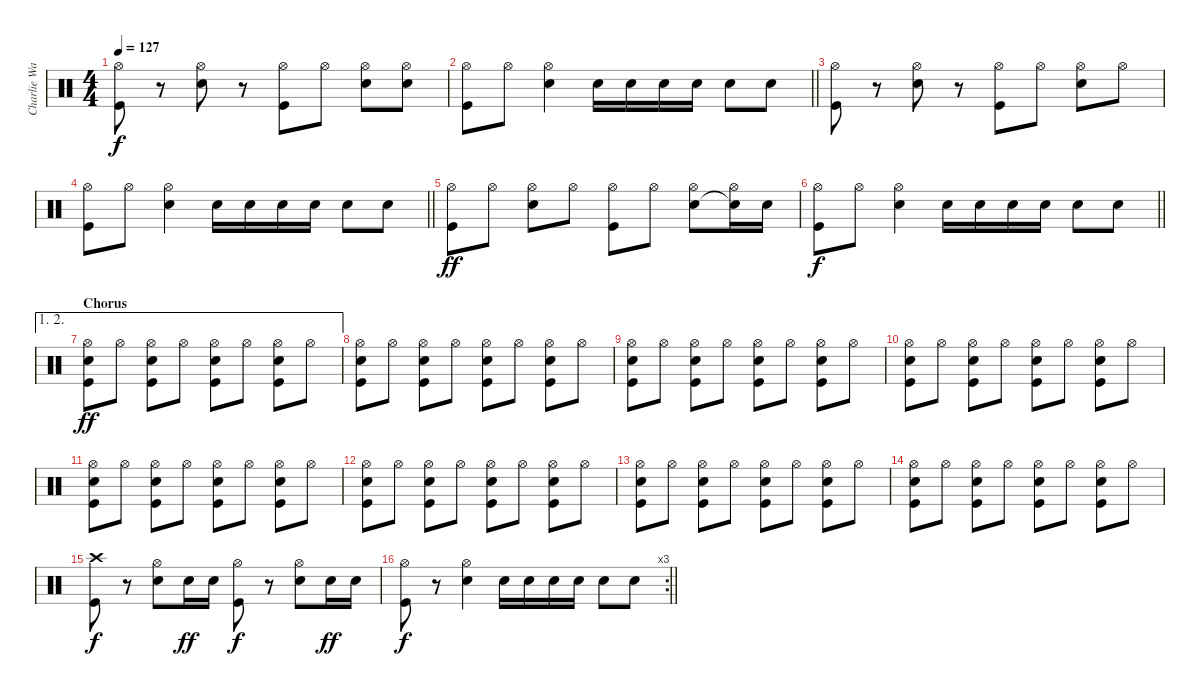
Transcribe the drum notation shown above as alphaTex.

\track ("Charlie Watts" "Charlie Wa") {instrument percussion}
\staff {score}
\articulation defaults
\ts (4 4)
\tempo 127
\clef neutral
\ks c
("Hi-Hat (open)" "Kick (hit)").8{dy f} r.8 ("Hi-Hat (open)" "Snare (hit) 2").8 r.8 ("Hi-Hat (open)" "Kick (hit)").8 "Hi-Hat (open)".8 ("Hi-Hat (open)" "Snare (hit) 2").8 ("Hi-Hat (open)" "Snare (hit) 2").8 |
\barLineRight lightlight
("Hi-Hat (open)" "Kick (hit)").8 "Hi-Hat (open)".8 ("Hi-Hat (open)" "Snare (hit) 2").4 "Snare (hit) 2".16 "Snare (hit) 2".16 "Snare (hit) 2".16 "Snare (hit) 2".16 "Snare (hit) 2".8 "Snare (hit) 2".8 |
("Hi-Hat (open)" "Kick (hit)").8 r.8 ("Hi-Hat (open)" "Snare (hit) 2").8 r.8 ("Hi-Hat (open)" "Kick (hit)").8 "Hi-Hat (open)".8 ("Hi-Hat (open)" "Snare (hit) 2").8 "Hi-Hat (open)".8 |
\barLineRight lightlight
("Hi-Hat (open)" "Kick (hit)").8 "Hi-Hat (open)".8 ("Hi-Hat (open)" "Snare (hit) 2").4 "Snare (hit) 2".16 "Snare (hit) 2".16 "Snare (hit) 2".16 "Snare (hit) 2".16 "Snare (hit) 2".8 "Snare (hit) 2".8 |
("Hi-Hat (open)" "Kick (hit)").8{dy ff} "Hi-Hat (open)".8 ("Hi-Hat (open)" "Snare (hit) 2").8 "Hi-Hat (open)".8 ("Hi-Hat (open)" "Kick (hit)").8 "Hi-Hat (open)".8 ("Hi-Hat (open)" "Snare (hit) 2").8 ("Hi-Hat (open)" "Snare (hit) 2"{t}).16 "Snare (hit) 2".16 |
\barLineRight lightlight
("Hi-Hat (open)" "Kick (hit)").8{dy f} "Hi-Hat (open)".8 ("Hi-Hat (open)" "Snare (hit) 2").4 "Snare (hit) 2".16 "Snare (hit) 2".16 "Snare (hit) 2".16 "Snare (hit) 2".16 "Snare (hit) 2".8 "Snare (hit) 2".8 |
\ae (1 2)
\section ("" "Chorus")
("Hi-Hat (open)" "Snare (hit) 2" "Kick (hit)").8{dy ff} "Hi-Hat (open)".8 ("Hi-Hat (open)" "Kick (hit)" "Snare (hit) 2").8 "Hi-Hat (open)".8 ("Hi-Hat (open)" "Snare (hit) 2" "Kick (hit)").8 "Hi-Hat (open)".8 ("Hi-Hat (open)" "Kick (hit)" "Snare (hit) 2").8 "Hi-Hat (open)".8 |
("Hi-Hat (open)" "Snare (hit) 2" "Kick (hit)").8 "Hi-Hat (open)".8 ("Hi-Hat (open)" "Kick (hit)" "Snare (hit) 2").8 "Hi-Hat (open)".8 ("Hi-Hat (open)" "Snare (hit) 2" "Kick (hit)").8 "Hi-Hat (open)".8 ("Hi-Hat (open)" "Kick (hit)" "Snare (hit) 2").8 "Hi-Hat (open)".8 |
("Hi-Hat (open)" "Snare (hit) 2" "Kick (hit)").8 "Hi-Hat (open)".8 ("Hi-Hat (open)" "Kick (hit)" "Snare (hit) 2").8 "Hi-Hat (open)".8 ("Hi-Hat (open)" "Snare (hit) 2" "Kick (hit)").8 "Hi-Hat (open)".8 ("Hi-Hat (open)" "Kick (hit)" "Snare (hit) 2").8 "Hi-Hat (open)".8 |
("Hi-Hat (open)" "Snare (hit) 2" "Kick (hit)").8 "Hi-Hat (open)".8 ("Hi-Hat (open)" "Kick (hit)" "Snare (hit) 2").8 "Hi-Hat (open)".8 ("Hi-Hat (open)" "Snare (hit) 2" "Kick (hit)").8 "Hi-Hat (open)".8 ("Hi-Hat (open)" "Kick (hit)" "Snare (hit) 2").8 "Hi-Hat (open)".8 |
("Hi-Hat (open)" "Snare (hit) 2" "Kick (hit)").8 "Hi-Hat (open)".8 ("Hi-Hat (open)" "Kick (hit)" "Snare (hit) 2").8 "Hi-Hat (open)".8 ("Hi-Hat (open)" "Snare (hit) 2" "Kick (hit)").8 "Hi-Hat (open)".8 ("Hi-Hat (open)" "Kick (hit)" "Snare (hit) 2").8 "Hi-Hat (open)".8 |
("Hi-Hat (open)" "Snare (hit) 2" "Kick (hit)").8 "Hi-Hat (open)".8 ("Hi-Hat (open)" "Kick (hit)" "Snare (hit) 2").8 "Hi-Hat (open)".8 ("Hi-Hat (open)" "Snare (hit) 2" "Kick (hit)").8 "Hi-Hat (open)".8 ("Hi-Hat (open)" "Kick (hit)" "Snare (hit) 2").8 "Hi-Hat (open)".8 |
("Hi-Hat (open)" "Snare (hit) 2" "Kick (hit)").8 "Hi-Hat (open)".8 ("Hi-Hat (open)" "Kick (hit)" "Snare (hit) 2").8 "Hi-Hat (open)".8 ("Hi-Hat (open)" "Snare (hit) 2" "Kick (hit)").8 "Hi-Hat (open)".8 ("Hi-Hat (open)" "Kick (hit)" "Snare (hit) 2").8 "Hi-Hat (open)".8 |
("Hi-Hat (open)" "Snare (hit) 2" "Kick (hit)").8 "Hi-Hat (open)".8 ("Hi-Hat (open)" "Kick (hit)" "Snare (hit) 2").8 "Hi-Hat (open)".8 ("Hi-Hat (open)" "Snare (hit) 2" "Kick (hit)").8 "Hi-Hat (open)".8 ("Hi-Hat (open)" "Kick (hit)" "Snare (hit) 2").8 "Hi-Hat (open)".8 |
("Crash high (hit)" "Kick (hit)").8{dy f} r.8 ("Hi-Hat (open)" "Snare (hit) 2").8 "Snare (hit) 2".16{dy ff} "Snare (hit) 2".16 ("Hi-Hat (open)" "Kick (hit)").8{dy f} r.8 ("Hi-Hat (open)" "Snare (hit) 2").8 "Snare (hit) 2".16{dy ff} "Snare (hit) 2".16 |
\rc 3
\barLineRight lightlight
("Hi-Hat (open)" "Kick (hit)").8{dy f} r.8 ("Hi-Hat (open)" "Snare (hit) 2").4 "Snare (hit) 2".16 "Snare (hit) 2".16 "Snare (hit) 2".16 "Snare (hit) 2".16 "Snare (hit) 2".8 "Snare (hit) 2".8
